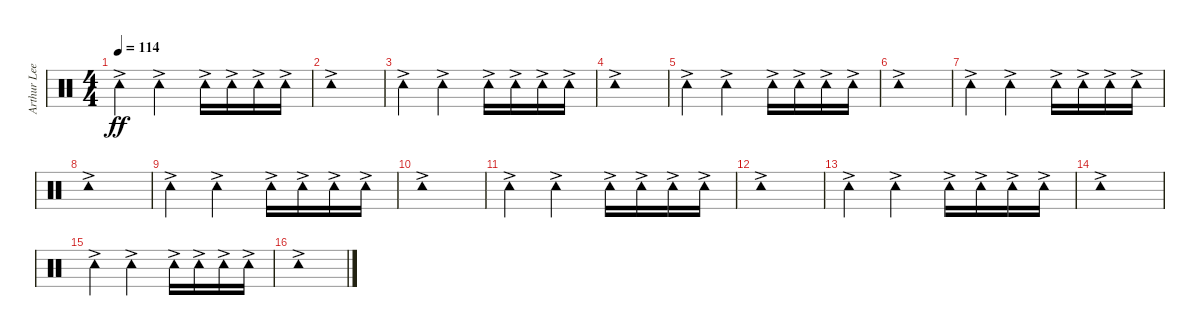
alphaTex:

\track ("Arthur Lee" "Arthur Lee") {instrument percussion}
\staff {score}
\articulation defaults
\ts (4 4)
\tempo 114
\clef neutral
\ks c "Tambourine (hit)"{ac}.4{dy ff} "Tambourine (hit)"{ac}.2 "Tambourine (hit)"{ac}.16 "Tambourine (hit)"{ac}.16 "Tambourine (hit)"{ac}.16 "Tambourine (hit)"{ac}.16
|
"Tambourine (hit)"{ac}.1 |
"Tambourine (hit)"{ac}.4 "Tambourine (hit)"{ac}.2 "Tambourine (hit)"{ac}.16 "Tambourine (hit)"{ac}.16 "Tambourine (hit)"{ac}.16 "Tambourine (hit)"{ac}.16 |
"Tambourine (hit)"{ac}.1 |
"Tambourine (hit)"{ac}.4 "Tambourine (hit)"{ac}.2 "Tambourine (hit)"{ac}.16 "Tambourine (hit)"{ac}.16 "Tambourine (hit)"{ac}.16 "Tambourine (hit)"{ac}.16 |
"Tambourine (hit)"{ac}.1 |
"Tambourine (hit)"{ac}.4 "Tambourine (hit)"{ac}.2 "Tambourine (hit)"{ac}.16 "Tambourine (hit)"{ac}.16 "Tambourine (hit)"{ac}.16 "Tambourine (hit)"{ac}.16 |
"Tambourine (hit)"{ac}.1 |
"Tambourine (hit)"{ac}.4 "Tambourine (hit)"{ac}.2 "Tambourine (hit)"{ac}.16 "Tambourine (hit)"{ac}.16 "Tambourine (hit)"{ac}.16 "Tambourine (hit)"{ac}.16 |
"Tambourine (hit)"{ac}.1 |
"Tambourine (hit)"{ac}.4 "Tambourine (hit)"{ac}.2 "Tambourine (hit)"{ac}.16 "Tambourine (hit)"{ac}.16 "Tambourine (hit)"{ac}.16 "Tambourine (hit)"{ac}.16 |
"Tambourine (hit)"{ac}.1 |
"Tambourine (hit)"{ac}.4 "Tambourine (hit)"{ac}.2 "Tambourine (hit)"{ac}.16 "Tambourine (hit)"{ac}.16 "Tambourine (hit)"{ac}.16 "Tambourine (hit)"{ac}.16 |
"Tambourine (hit)"{ac}.1 |
"Tambourine (hit)"{ac}.4 "Tambourine (hit)"{ac}.2 "Tambourine (hit)"{ac}.16 "Tambourine (hit)"{ac}.16 "Tambourine (hit)"{ac}.16 "Tambourine (hit)"{ac}.16 |
"Tambourine (hit)"{ac}.1
